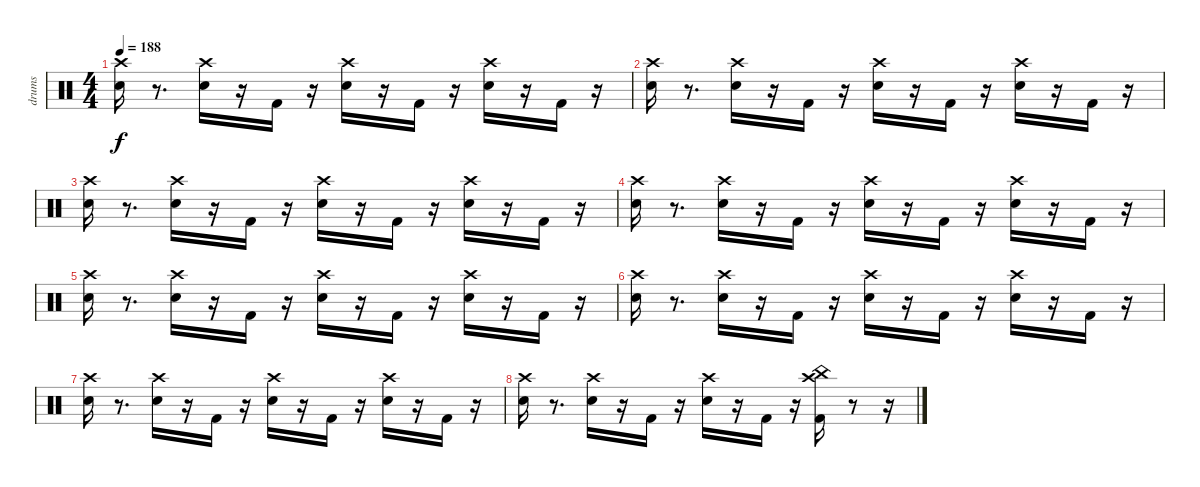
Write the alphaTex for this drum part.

\track ("drums" "drums") {instrument percussion}
\staff {score}
\articulation defaults
\ts (4 4)
\tempo 188
\clef neutral
\ks c
("Snare (hit) 2" "Crash high (hit)").16{dy f} r.8{d} ("Snare (hit) 2" "Crash high (hit)").16 r.16 "Kick (hit) 2".16 r.16 ("Snare (hit) 2" "Crash high (hit)").16 r.16 "Kick (hit) 2".16 r.16 ("Snare (hit) 2" "Crash high (hit)").16 r.16 "Kick (hit) 2".16 r.16 |
("Snare (hit) 2" "Crash high (hit)").16 r.8{d} ("Snare (hit) 2" "Crash high (hit)").16 r.16 "Kick (hit) 2".16 r.16 ("Snare (hit) 2" "Crash high (hit)").16 r.16 "Kick (hit) 2".16 r.16 ("Snare (hit) 2" "Crash high (hit)").16 r.16 "Kick (hit) 2".16 r.16 |
("Snare (hit) 2" "Crash high (hit)").16 r.8{d} ("Snare (hit) 2" "Crash high (hit)").16 r.16 "Kick (hit) 2".16 r.16 ("Snare (hit) 2" "Crash high (hit)").16 r.16 "Kick (hit) 2".16 r.16 ("Snare (hit) 2" "Crash high (hit)").16 r.16 "Kick (hit) 2".16 r.16 |
("Snare (hit) 2" "Crash high (hit)").16 r.8{d} ("Snare (hit) 2" "Crash high (hit)").16 r.16 "Kick (hit) 2".16 r.16 ("Snare (hit) 2" "Crash high (hit)").16 r.16 "Kick (hit) 2".16 r.16 ("Snare (hit) 2" "Crash high (hit)").16 r.16 "Kick (hit) 2".16 r.16 |
("Snare (hit) 2" "Crash high (hit)").16 r.8{d} ("Snare (hit) 2" "Crash high (hit)").16 r.16 "Kick (hit) 2".16 r.16 ("Snare (hit) 2" "Crash high (hit)").16 r.16 "Kick (hit) 2".16 r.16 ("Snare (hit) 2" "Crash high (hit)").16 r.16 "Kick (hit) 2".16 r.16 |
("Snare (hit) 2" "Crash high (hit)").16 r.8{d} ("Snare (hit) 2" "Crash high (hit)").16 r.16 "Kick (hit) 2".16 r.16 ("Snare (hit) 2" "Crash high (hit)").16 r.16 "Kick (hit) 2".16 r.16 ("Snare (hit) 2" "Crash high (hit)").16 r.16 "Kick (hit) 2".16 r.16 |
("Snare (hit) 2" "Crash high (hit)").16 r.8{d} ("Snare (hit) 2" "Crash high (hit)").16 r.16 "Kick (hit) 2".16 r.16 ("Snare (hit) 2" "Crash high (hit)").16 r.16 "Kick (hit) 2".16 r.16 ("Snare (hit) 2" "Crash high (hit)").16 r.16 "Kick (hit) 2".16 r.16 |
("Snare (hit) 2" "Crash high (hit)").16 r.8{d} ("Snare (hit) 2" "Crash high (hit)").16 r.16 "Kick (hit) 2".16 r.16 ("Snare (hit) 2" "Crash high (hit)").16 r.16 "Kick (hit) 2".16 r.16 ("Kick (hit) 2" "Crash high (hit)" "China (hit)").16 r.8 r.16
